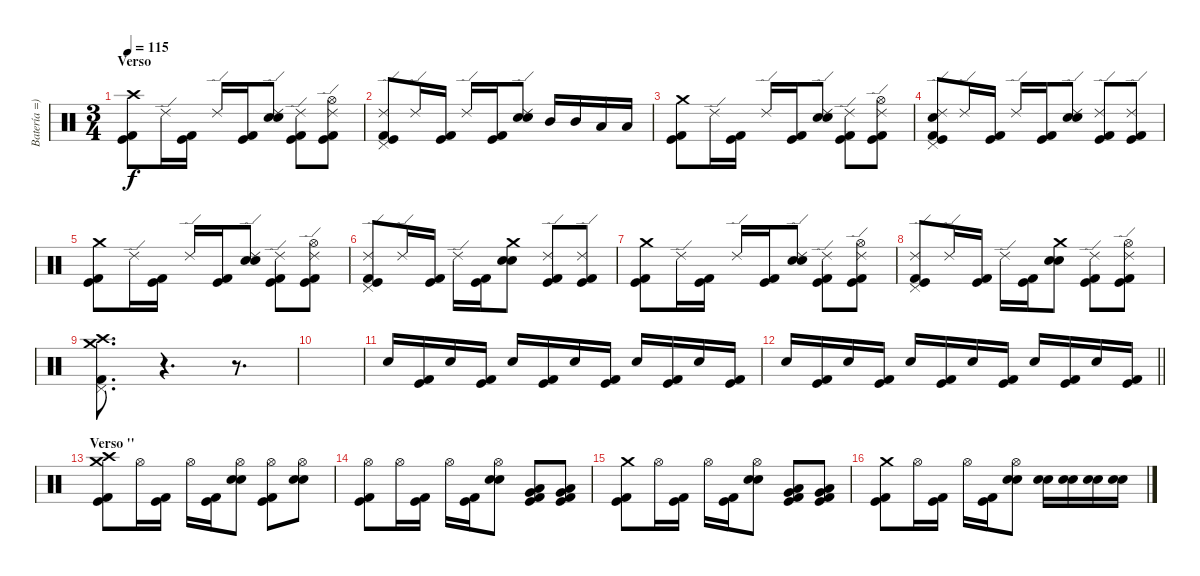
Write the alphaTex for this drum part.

\track ("Batería =)" "Batería =)") {instrument percussion}
\staff {score}
\articulation defaults
\ts (3 4)
\section ("" "Verso")
\tempo 115
\clef neutral
\ks c
("Crash high (hit)" "Kick (hit)" "Kick (hit) 2").8{dy f} "Ride (edge) 2".16 ("Kick (hit)" "Kick (hit) 2").16 "Ride (edge) 2".16 ("Kick (hit)" "Kick (hit) 2").16 ("Ride (edge) 2" "Electric Snare (hit)" "Snare (hit) 2").8 ("Ride (edge) 2" "Kick (hit) 2" "Kick (hit)").8 ("Ride (edge) 2" "Hi-Hat (open)" "Kick (hit) 2" "Kick (hit)").8 |
("Ride (edge) 2" "Pedal Hi-Hat (hit)" "Kick (hit)" "Kick (hit) 2").8 "Ride (edge) 2".16 ("Kick (hit)" "Kick (hit) 2").16 "Ride (edge) 2".16 ("Kick (hit)" "Kick (hit) 2").16 ("Ride (edge) 2" "Electric Snare (hit)" "Snare (hit) 2").8 "Mid Tom (hit)".16 "Mid Tom (hit)".16 "Low Tom (hit)".16 "Low Tom (hit)".16 |
("Crash medium (hit)" "Kick (hit)" "Kick (hit) 2").8 "Ride (edge) 2".16 ("Kick (hit)" "Kick (hit) 2").16 "Ride (edge) 2".16 ("Kick (hit)" "Kick (hit) 2").16 ("Ride (edge) 2" "Electric Snare (hit)" "Snare (hit) 2").8 ("Ride (edge) 2" "Kick (hit) 2" "Kick (hit)").8 ("Ride (edge) 2" "Hi-Hat (open)" "Kick (hit) 2" "Kick (hit)").8 |
("Ride (edge) 2" "Pedal Hi-Hat (hit)" "Snare (hit) 2" "Kick (hit)" "Kick (hit) 2").8 "Ride (edge) 2".16 ("Kick (hit)" "Kick (hit) 2").16 "Ride (edge) 2".16 ("Kick (hit)" "Kick (hit) 2").16 ("Ride (edge) 2" "Electric Snare (hit)" "Snare (hit) 2").8 ("Ride (edge) 2" "Kick (hit) 2" "Kick (hit)").8 ("Ride (edge) 2" "Kick (hit) 2" "Kick (hit)").8 |
("Crash medium (hit)" "Kick (hit)" "Kick (hit) 2").8 "Ride (edge) 2".16 ("Kick (hit)" "Kick (hit) 2").16 "Ride (edge) 2".16 ("Kick (hit)" "Kick (hit) 2").16 ("Ride (edge) 2" "Electric Snare (hit)" "Snare (hit) 2").8 ("Ride (edge) 2" "Kick (hit) 2" "Kick (hit)").8 ("Ride (edge) 2" "Hi-Hat (open)" "Kick (hit) 2" "Kick (hit)").8 |
("Ride (edge) 2" "Pedal Hi-Hat (hit)" "Kick (hit)" "Kick (hit) 2").8 "Ride (edge) 2".16 ("Kick (hit)" "Kick (hit) 2").16 "Ride (edge) 2".16 ("Kick (hit)" "Kick (hit) 2").16 ("Crash medium (hit)" "Electric Snare (hit)" "Snare (hit) 2").8 ("Ride (edge) 2" "Kick (hit) 2" "Kick (hit)").8 ("Ride (edge) 2" "Kick (hit) 2" "Kick (hit)").8 |
("Crash medium (hit)" "Kick (hit)" "Kick (hit) 2").8 "Ride (edge) 2".16 ("Kick (hit)" "Kick (hit) 2").16 "Ride (edge) 2".16 ("Kick (hit)" "Kick (hit) 2").16 ("Ride (edge) 2" "Electric Snare (hit)" "Snare (hit) 2").8 ("Ride (edge) 2" "Kick (hit) 2" "Kick (hit)").8 ("Ride (edge) 2" "Hi-Hat (open)" "Kick (hit) 2" "Kick (hit)").8 |
("Ride (edge) 2" "Pedal Hi-Hat (hit)" "Kick (hit)" "Kick (hit) 2").8 "Ride (edge) 2".16 ("Kick (hit)" "Kick (hit) 2").16 "Ride (edge) 2".16 ("Kick (hit)" "Kick (hit) 2").16 ("Crash medium (hit)" "Electric Snare (hit)" "Snare (hit) 2").8 ("Ride (edge) 2" "Kick (hit) 2" "Kick (hit)").8 ("Ride (edge) 2" "Hi-Hat (open)" "Kick (hit) 2" "Kick (hit)").8 |
("Crash medium (hit)" "Crash high (hit)" "Pedal Hi-Hat (hit)" "Kick (hit) 2").8{d} r.4{d} r.8{d} |
|
"Electric Snare (hit)".16 ("Kick (hit)" "Kick (hit) 2").16 "Electric Snare (hit)".16 ("Kick (hit)" "Kick (hit) 2").16 "Electric Snare (hit)".16 ("Kick (hit)" "Kick (hit) 2").16 "Electric Snare (hit)".16 ("Kick (hit)" "Kick (hit) 2").16 "Electric Snare (hit)".16 ("Kick (hit)" "Kick (hit) 2").16 "Electric Snare (hit)".16 ("Kick (hit)" "Kick (hit) 2").16 |
\barLineRight lightlight "Electric Snare (hit)".16
("Kick (hit)" "Kick (hit) 2").16 "Electric Snare (hit)".16 ("Kick (hit)" "Kick (hit) 2").16 "Electric Snare (hit)".16 ("Kick (hit)" "Kick (hit) 2").16 "Electric Snare (hit)".16 ("Kick (hit)" "Kick (hit) 2").16 "Electric Snare (hit)".16 ("Kick (hit)" "Kick (hit) 2").16 "Electric Snare (hit)".16 ("Kick (hit)" "Kick (hit) 2").16 |
\section ("" "Verso ''")
("Crash high (hit)" "Crash medium (hit)" "Kick (hit)" "Kick (hit) 2").8 "Hi-Hat (open)".16 ("Kick (hit)" "Kick (hit) 2").16 "Hi-Hat (open)".16 ("Kick (hit)" "Kick (hit) 2").16 ("Hi-Hat (open)" "Snare (hit) 2" "Electric Snare (hit)").8 ("Hi-Hat (open)" "Kick (hit)" "Kick (hit) 2").8 ("Hi-Hat (open)" "Snare (hit) 2" "Electric Snare (hit)").8 |
("Hi-Hat (open)" "Kick (hit)" "Kick (hit) 2").8 "Hi-Hat (open)".16 ("Kick (hit)" "Kick (hit) 2").16 "Hi-Hat (open)".16 ("Kick (hit)" "Kick (hit) 2").16 ("Hi-Hat (open)" "Snare (hit) 2" "Electric Snare (hit)").8 ("Low Floor Tom (hit)" "Very Low Tom (hit)" "Kick (hit)" "Kick (hit) 2").8 ("Low Floor Tom (hit)" "Very Low Tom (hit)" "Kick (hit)" "Kick (hit) 2").8 |
("Crash medium (hit)" "Kick (hit)" "Kick (hit) 2").8 "Hi-Hat (open)".16 ("Kick (hit)" "Kick (hit) 2").16 "Hi-Hat (open)".16 ("Kick (hit)" "Kick (hit) 2").16 ("Hi-Hat (open)" "Snare (hit) 2" "Electric Snare (hit)").8 ("Low Floor Tom (hit)" "Very Low Tom (hit)" "Kick (hit)" "Kick (hit) 2").8 ("Low Floor Tom (hit)" "Very Low Tom (hit)" "Kick (hit)" "Kick (hit) 2").8 |
("Crash medium (hit)" "Kick (hit)" "Kick (hit) 2").8 "Hi-Hat (open)".16 ("Kick (hit)" "Kick (hit) 2").16 "Hi-Hat (open)".16 ("Kick (hit)" "Kick (hit) 2").16 ("Hi-Hat (open)" "Snare (hit) 2" "Electric Snare (hit)").8 ("Snare (hit) 2" "Electric Snare (hit)").16 ("Snare (hit) 2" "Electric Snare (hit)").16 ("Snare (hit) 2" "Electric Snare (hit)").16 ("Snare (hit) 2" "Electric Snare (hit)").16
